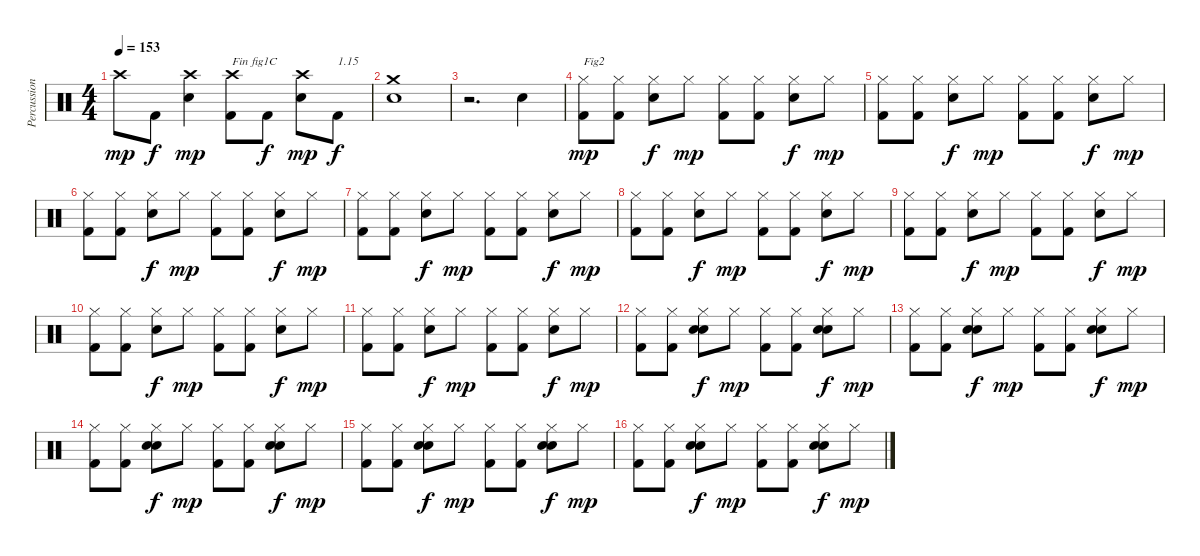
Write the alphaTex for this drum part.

\track ("Percussions" "Percussion") {instrument percussion}
\staff {score}
\articulation defaults
\ts (4 4)
\tempo 153
\clef neutral
\ks c "Crash high (hit)".8{dy mp} "Kick (hit) 2".8{dy f}
("Electric Snare (hit)" "Crash high (hit)").4{dy mp} ("Kick (hit) 2" "Crash high (hit)").8{txt "Fin fig1C"} "Kick (hit) 2".8{dy f} ("Electric Snare (hit)" "Crash high (hit)").8{dy mp} "Kick (hit) 2".8{txt "1.15" dy f} |
("Electric Snare (hit)" "Crash medium (hit)").1 |
r.2{d} "Electric Snare (hit)".4 |
("Kick (hit) 2" "Hi-Hat (closed)").8{txt "Fig2" dy mp} ("Kick (hit) 2" "Hi-Hat (closed)").8 ("Electric Snare (hit)" "Hi-Hat (closed)").8{dy f} "Hi-Hat (closed)".8{dy mp} ("Kick (hit) 2" "Hi-Hat (closed)").8 ("Kick (hit) 2" "Hi-Hat (closed)").8 ("Electric Snare (hit)" "Hi-Hat (closed)").8{dy f} "Hi-Hat (closed)".8{dy mp} |
("Kick (hit) 2" "Hi-Hat (closed)").8 ("Kick (hit) 2" "Hi-Hat (closed)").8 ("Electric Snare (hit)" "Hi-Hat (closed)").8{dy f} "Hi-Hat (closed)".8{dy mp} ("Kick (hit) 2" "Hi-Hat (closed)").8 ("Kick (hit) 2" "Hi-Hat (closed)").8 ("Electric Snare (hit)" "Hi-Hat (closed)").8{dy f} "Hi-Hat (closed)".8{dy mp} |
("Kick (hit) 2" "Hi-Hat (closed)").8 ("Kick (hit) 2" "Hi-Hat (closed)").8 ("Electric Snare (hit)" "Hi-Hat (closed)").8{dy f} "Hi-Hat (closed)".8{dy mp} ("Kick (hit) 2" "Hi-Hat (closed)").8 ("Kick (hit) 2" "Hi-Hat (closed)").8 ("Electric Snare (hit)" "Hi-Hat (closed)").8{dy f} "Hi-Hat (closed)".8{dy mp} |
("Kick (hit) 2" "Hi-Hat (closed)").8 ("Kick (hit) 2" "Hi-Hat (closed)").8 ("Electric Snare (hit)" "Hi-Hat (closed)").8{dy f} "Hi-Hat (closed)".8{dy mp} ("Kick (hit) 2" "Hi-Hat (closed)").8 ("Kick (hit) 2" "Hi-Hat (closed)").8 ("Electric Snare (hit)" "Hi-Hat (closed)").8{dy f} "Hi-Hat (closed)".8{dy mp} |
("Kick (hit) 2" "Hi-Hat (closed)").8 ("Kick (hit) 2" "Hi-Hat (closed)").8 ("Electric Snare (hit)" "Hi-Hat (closed)").8{dy f} "Hi-Hat (closed)".8{dy mp} ("Kick (hit) 2" "Hi-Hat (closed)").8 ("Kick (hit) 2" "Hi-Hat (closed)").8 ("Electric Snare (hit)" "Hi-Hat (closed)").8{dy f} "Hi-Hat (closed)".8{dy mp} |
("Kick (hit) 2" "Hi-Hat (closed)").8 ("Kick (hit) 2" "Hi-Hat (closed)").8 ("Electric Snare (hit)" "Hi-Hat (closed)").8{dy f} "Hi-Hat (closed)".8{dy mp} ("Kick (hit) 2" "Hi-Hat (closed)").8 ("Kick (hit) 2" "Hi-Hat (closed)").8 ("Electric Snare (hit)" "Hi-Hat (closed)").8{dy f} "Hi-Hat (closed)".8{dy mp} |
("Kick (hit) 2" "Hi-Hat (closed)").8 ("Kick (hit) 2" "Hi-Hat (closed)").8 ("Electric Snare (hit)" "Hi-Hat (closed)").8{dy f} "Hi-Hat (closed)".8{dy mp} ("Kick (hit) 2" "Hi-Hat (closed)").8 ("Kick (hit) 2" "Hi-Hat (closed)").8 ("Electric Snare (hit)" "Hi-Hat (closed)").8{dy f} "Hi-Hat (closed)".8{dy mp} |
("Kick (hit) 2" "Hi-Hat (closed)").8 ("Kick (hit) 2" "Hi-Hat (closed)").8 ("Electric Snare (hit)" "Hi-Hat (closed)").8{dy f} "Hi-Hat (closed)".8{dy mp} ("Kick (hit) 2" "Hi-Hat (closed)").8 ("Kick (hit) 2" "Hi-Hat (closed)").8 ("Electric Snare (hit)" "Hi-Hat (closed)").8{dy f} "Hi-Hat (closed)".8{dy mp} |
("Kick (hit) 2" "Hi-Hat (closed)").8 ("Kick (hit) 2" "Hi-Hat (closed)").8 ("Snare (hit) 2" "Electric Snare (hit)" "Hi-Hat (closed)").8{dy f} "Hi-Hat (closed)".8{dy mp} ("Kick (hit) 2" "Hi-Hat (closed)").8 ("Kick (hit) 2" "Hi-Hat (closed)").8 ("Snare (hit) 2" "Electric Snare (hit)" "Hi-Hat (closed)").8{dy f} "Hi-Hat (closed)".8{dy mp} |
("Kick (hit) 2" "Hi-Hat (closed)").8 ("Kick (hit) 2" "Hi-Hat (closed)").8 ("Snare (hit) 2" "Electric Snare (hit)" "Hi-Hat (closed)").8{dy f} "Hi-Hat (closed)".8{dy mp} ("Kick (hit) 2" "Hi-Hat (closed)").8 ("Kick (hit) 2" "Hi-Hat (closed)").8 ("Snare (hit) 2" "Electric Snare (hit)" "Hi-Hat (closed)").8{dy f} "Hi-Hat (closed)".8{dy mp} |
("Kick (hit) 2" "Hi-Hat (closed)").8 ("Kick (hit) 2" "Hi-Hat (closed)").8 ("Snare (hit) 2" "Electric Snare (hit)" "Hi-Hat (closed)").8{dy f} "Hi-Hat (closed)".8{dy mp} ("Kick (hit) 2" "Hi-Hat (closed)").8 ("Kick (hit) 2" "Hi-Hat (closed)").8 ("Snare (hit) 2" "Electric Snare (hit)" "Hi-Hat (closed)").8{dy f} "Hi-Hat (closed)".8{dy mp} |
("Kick (hit) 2" "Hi-Hat (closed)").8 ("Kick (hit) 2" "Hi-Hat (closed)").8 ("Snare (hit) 2" "Electric Snare (hit)" "Hi-Hat (closed)").8{dy f} "Hi-Hat (closed)".8{dy mp} ("Kick (hit) 2" "Hi-Hat (closed)").8 ("Kick (hit) 2" "Hi-Hat (closed)").8 ("Snare (hit) 2" "Electric Snare (hit)" "Hi-Hat (closed)").8{dy f} "Hi-Hat (closed)".8{dy mp} |
("Kick (hit) 2" "Hi-Hat (closed)").8 ("Kick (hit) 2" "Hi-Hat (closed)").8 ("Snare (hit) 2" "Electric Snare (hit)" "Hi-Hat (closed)").8{dy f} "Hi-Hat (closed)".8{dy mp} ("Kick (hit) 2" "Hi-Hat (closed)").8 ("Kick (hit) 2" "Hi-Hat (closed)").8 ("Snare (hit) 2" "Electric Snare (hit)" "Hi-Hat (closed)").8{dy f} "Hi-Hat (closed)".8{dy mp}
